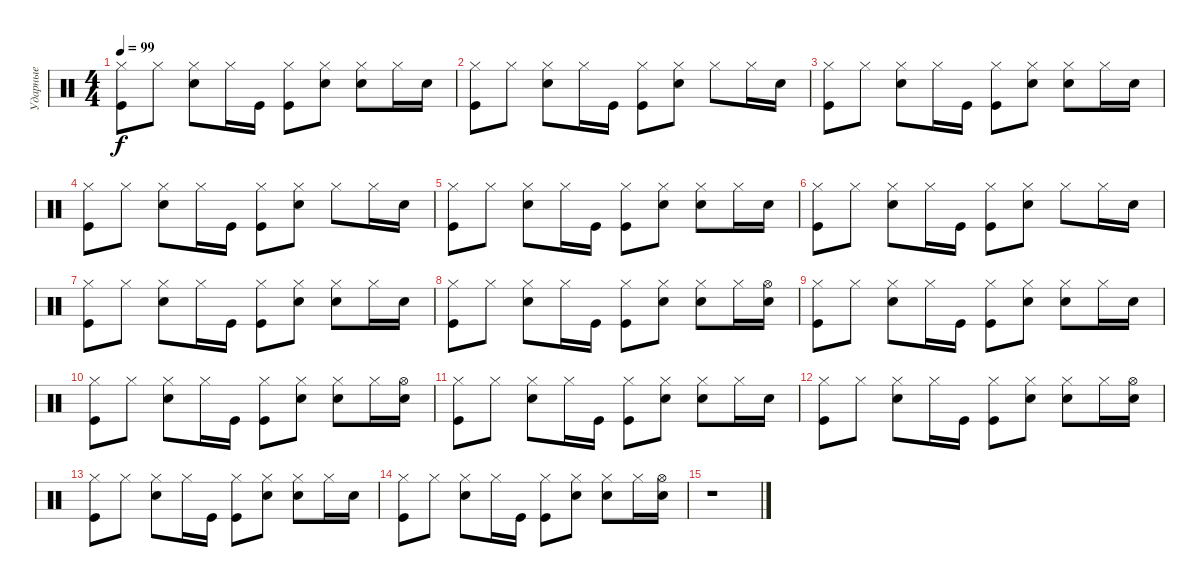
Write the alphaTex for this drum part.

\track ("Ударные" "Ударные") {instrument percussion}
\staff {score}
\articulation defaults
\ts (4 4)
\tempo 99
\clef neutral
\ks c
("Kick (hit)" "Hi-Hat (closed)").8{dy f} "Hi-Hat (closed)".8 ("Snare (hit) 2" "Hi-Hat (closed)").8 "Hi-Hat (closed)".16 "Kick (hit)".16 ("Hi-Hat (closed)" "Kick (hit)").8 ("Snare (hit) 2" "Hi-Hat (closed)").8 ("Hi-Hat (closed)" "Snare (hit) 2").8 "Hi-Hat (closed)".16 "Snare (hit) 2".16 |
("Kick (hit)" "Hi-Hat (closed)").8 "Hi-Hat (closed)".8 ("Snare (hit) 2" "Hi-Hat (closed)").8 "Hi-Hat (closed)".16 "Kick (hit)".16 ("Hi-Hat (closed)" "Kick (hit)").8 ("Snare (hit) 2" "Hi-Hat (closed)").8 "Hi-Hat (closed)".8 "Hi-Hat (closed)".16 "Snare (hit) 2".16 |
("Kick (hit)" "Hi-Hat (closed)").8 "Hi-Hat (closed)".8 ("Snare (hit) 2" "Hi-Hat (closed)").8 "Hi-Hat (closed)".16 "Kick (hit)".16 ("Hi-Hat (closed)" "Kick (hit)").8 ("Snare (hit) 2" "Hi-Hat (closed)").8 ("Hi-Hat (closed)" "Snare (hit) 2").8 "Hi-Hat (closed)".16 "Snare (hit) 2".16 |
("Kick (hit)" "Hi-Hat (closed)").8 "Hi-Hat (closed)".8 ("Snare (hit) 2" "Hi-Hat (closed)").8 "Hi-Hat (closed)".16 "Kick (hit)".16 ("Hi-Hat (closed)" "Kick (hit)").8 ("Snare (hit) 2" "Hi-Hat (closed)").8 "Hi-Hat (closed)".8 "Hi-Hat (closed)".16 "Snare (hit) 2".16 |
("Kick (hit)" "Hi-Hat (closed)").8 "Hi-Hat (closed)".8 ("Snare (hit) 2" "Hi-Hat (closed)").8 "Hi-Hat (closed)".16 "Kick (hit)".16 ("Hi-Hat (closed)" "Kick (hit)").8 ("Snare (hit) 2" "Hi-Hat (closed)").8 ("Hi-Hat (closed)" "Snare (hit) 2").8 "Hi-Hat (closed)".16 "Snare (hit) 2".16 |
("Kick (hit)" "Hi-Hat (closed)").8 "Hi-Hat (closed)".8 ("Snare (hit) 2" "Hi-Hat (closed)").8 "Hi-Hat (closed)".16 "Kick (hit)".16 ("Hi-Hat (closed)" "Kick (hit)").8 ("Snare (hit) 2" "Hi-Hat (closed)").8 "Hi-Hat (closed)".8 "Hi-Hat (closed)".16 "Snare (hit) 2".16 |
("Kick (hit)" "Hi-Hat (closed)").8 "Hi-Hat (closed)".8 ("Snare (hit) 2" "Hi-Hat (closed)").8 "Hi-Hat (closed)".16 "Kick (hit)".16 ("Hi-Hat (closed)" "Kick (hit)").8 ("Snare (hit) 2" "Hi-Hat (closed)").8 ("Hi-Hat (closed)" "Snare (hit) 2").8 "Hi-Hat (closed)".16 "Snare (hit) 2".16 |
("Kick (hit)" "Hi-Hat (closed)").8 "Hi-Hat (closed)".8 ("Snare (hit) 2" "Hi-Hat (closed)").8 "Hi-Hat (closed)".16 "Kick (hit)".16 ("Hi-Hat (closed)" "Kick (hit)").8 ("Snare (hit) 2" "Hi-Hat (closed)").8 ("Hi-Hat (closed)" "Snare (hit) 2").8 "Hi-Hat (closed)".16 ("Snare (hit) 2" "Hi-Hat (open)").16 |
("Kick (hit)" "Hi-Hat (closed)").8 "Hi-Hat (closed)".8 ("Snare (hit) 2" "Hi-Hat (closed)").8 "Hi-Hat (closed)".16 "Kick (hit)".16 ("Hi-Hat (closed)" "Kick (hit)").8 ("Snare (hit) 2" "Hi-Hat (closed)").8 ("Hi-Hat (closed)" "Snare (hit) 2").8 "Hi-Hat (closed)".16 "Snare (hit) 2".16 |
("Kick (hit)" "Hi-Hat (closed)").8 "Hi-Hat (closed)".8 ("Snare (hit) 2" "Hi-Hat (closed)").8 "Hi-Hat (closed)".16 "Kick (hit)".16 ("Hi-Hat (closed)" "Kick (hit)").8 ("Snare (hit) 2" "Hi-Hat (closed)").8 ("Hi-Hat (closed)" "Snare (hit) 2").8 "Hi-Hat (closed)".16 ("Snare (hit) 2" "Hi-Hat (open)").16 |
("Kick (hit)" "Hi-Hat (closed)").8 "Hi-Hat (closed)".8 ("Snare (hit) 2" "Hi-Hat (closed)").8 "Hi-Hat (closed)".16 "Kick (hit)".16 ("Hi-Hat (closed)" "Kick (hit)").8 ("Snare (hit) 2" "Hi-Hat (closed)").8 ("Hi-Hat (closed)" "Snare (hit) 2").8 "Hi-Hat (closed)".16 "Snare (hit) 2".16 |
("Kick (hit)" "Hi-Hat (closed)").8 "Hi-Hat (closed)".8 ("Snare (hit) 2" "Hi-Hat (closed)").8 "Hi-Hat (closed)".16 "Kick (hit)".16 ("Hi-Hat (closed)" "Kick (hit)").8 ("Snare (hit) 2" "Hi-Hat (closed)").8 ("Hi-Hat (closed)" "Snare (hit) 2").8 "Hi-Hat (closed)".16 ("Snare (hit) 2" "Hi-Hat (open)").16 |
("Kick (hit)" "Hi-Hat (closed)").8 "Hi-Hat (closed)".8 ("Snare (hit) 2" "Hi-Hat (closed)").8 "Hi-Hat (closed)".16 "Kick (hit)".16 ("Hi-Hat (closed)" "Kick (hit)").8 ("Snare (hit) 2" "Hi-Hat (closed)").8 ("Hi-Hat (closed)" "Snare (hit) 2").8 "Hi-Hat (closed)".16 "Snare (hit) 2".16 |
("Kick (hit)" "Hi-Hat (closed)").8 "Hi-Hat (closed)".8 ("Snare (hit) 2" "Hi-Hat (closed)").8 "Hi-Hat (closed)".16 "Kick (hit)".16 ("Hi-Hat (closed)" "Kick (hit)").8 ("Snare (hit) 2" "Hi-Hat (closed)").8 ("Hi-Hat (closed)" "Snare (hit) 2").8 "Hi-Hat (closed)".16 ("Snare (hit) 2" "Hi-Hat (open)").16 |
r.1
